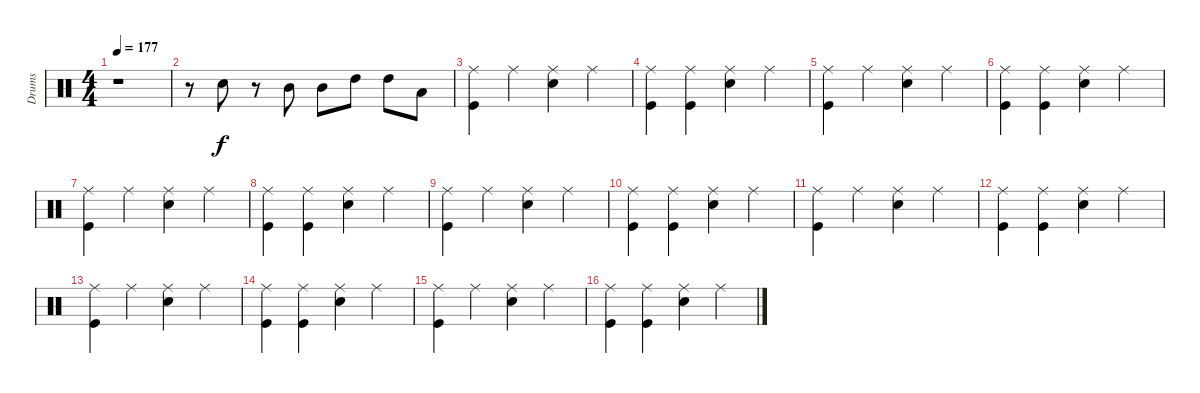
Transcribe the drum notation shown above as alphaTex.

\track ("Drums" "Drums") {instrument percussion}
\staff {score}
\articulation defaults
\ts (4 4)
\tempo 177
\clef neutral
\ks c
r.1{dy f} |
r.8 "Snare (hit) 2".8 r.8 "Mid Tom (hit)".8 "Mid Tom (hit)".8 "High Tom (hit)".8 "High Tom (hit)".8 "Low Tom (hit)".8 |
("Ride (middle)" "Kick (hit)").4 "Ride (middle)".4 ("Ride (middle)" "Snare (hit) 2").4 "Ride (middle)".4 |
("Ride (middle)" "Kick (hit)").4 ("Ride (middle)" "Kick (hit)").4 ("Ride (middle)" "Snare (hit) 2").4 "Ride (middle)".4 |
("Ride (middle)" "Kick (hit)").4 "Ride (middle)".4 ("Ride (middle)" "Snare (hit) 2").4 "Ride (middle)".4 |
("Ride (middle)" "Kick (hit)").4 ("Ride (middle)" "Kick (hit)").4 ("Ride (middle)" "Snare (hit) 2").4 "Ride (middle)".4 |
("Ride (middle)" "Kick (hit)").4 "Ride (middle)".4 ("Ride (middle)" "Snare (hit) 2").4 "Ride (middle)".4 |
("Ride (middle)" "Kick (hit)").4 ("Ride (middle)" "Kick (hit)").4 ("Ride (middle)" "Snare (hit) 2").4 "Ride (middle)".4 |
("Ride (middle)" "Kick (hit)").4 "Ride (middle)".4 ("Ride (middle)" "Snare (hit) 2").4 "Ride (middle)".4 |
("Ride (middle)" "Kick (hit)").4 ("Ride (middle)" "Kick (hit)").4 ("Ride (middle)" "Snare (hit) 2").4 "Ride (middle)".4 |
("Ride (middle)" "Kick (hit)").4 "Ride (middle)".4 ("Ride (middle)" "Snare (hit) 2").4 "Ride (middle)".4 |
("Ride (middle)" "Kick (hit)").4 ("Ride (middle)" "Kick (hit)").4 ("Ride (middle)" "Snare (hit) 2").4 "Ride (middle)".4 |
("Ride (middle)" "Kick (hit)").4 "Ride (middle)".4 ("Ride (middle)" "Snare (hit) 2").4 "Ride (middle)".4 |
("Ride (middle)" "Kick (hit)").4 ("Ride (middle)" "Kick (hit)").4 ("Ride (middle)" "Snare (hit) 2").4 "Ride (middle)".4 |
("Ride (middle)" "Kick (hit)").4 "Ride (middle)".4 ("Ride (middle)" "Snare (hit) 2").4 "Ride (middle)".4 |
("Ride (middle)" "Kick (hit)").4 ("Ride (middle)" "Kick (hit)").4 ("Ride (middle)" "Snare (hit) 2").4 "Ride (middle)".4
